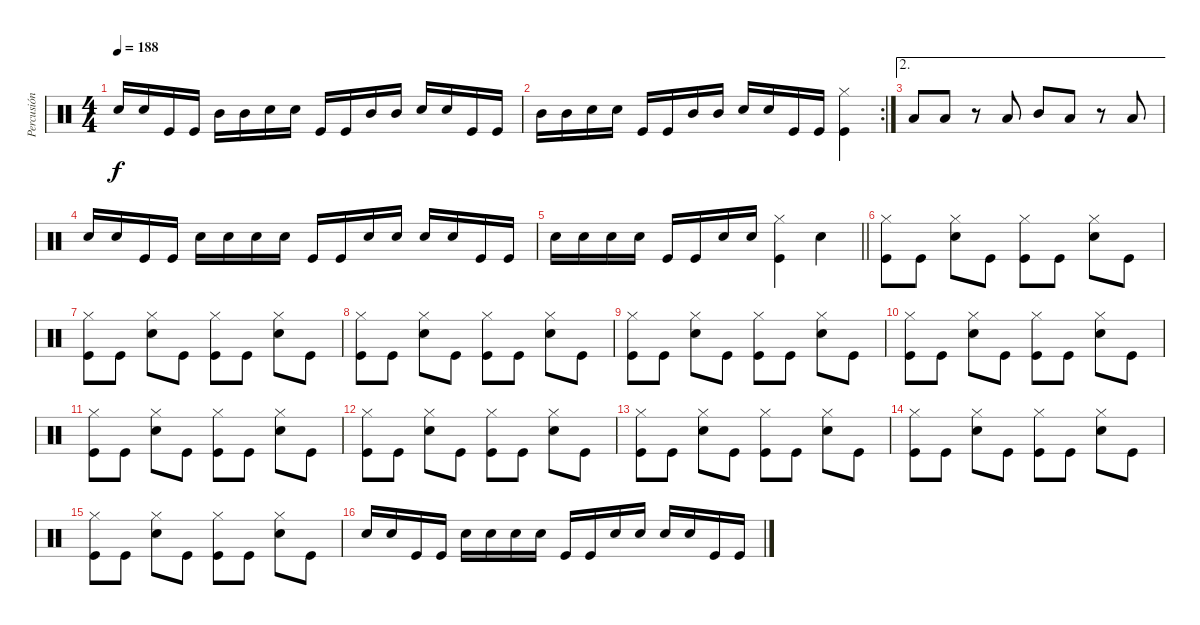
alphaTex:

\track ("Percusión" "Percusión") {instrument percussion}
\staff {score}
\articulation defaults
\ts (4 4)
\tempo 188
\clef neutral
\ks c "Snare (hit) 2".16{dy f} "Snare (hit) 2".16 "Kick (hit)".16 "Kick (hit)".16 "Mid Tom (hit)".16 "Mid Tom (hit)".16 "Snare (hit) 2".16 "Snare (hit) 2".16 "Kick (hit)".16 "Kick (hit)".16 "Mid Tom (hit)".16 "Mid Tom (hit)".16 "Snare (hit) 2".16 "Snare (hit) 2".16 "Kick (hit)".16 "Kick (hit)".16
|
\rc 2 "Mid Tom (hit)".16 "Mid Tom (hit)".16 "Snare (hit) 2".16 "Snare (hit) 2".16 "Kick (hit)".16 "Kick (hit)".16 "Mid Tom (hit)".16 "Mid Tom (hit)".16 "Snare (hit) 2".16 "Snare (hit) 2".16 "Kick (hit)".16 "Kick (hit)".16
("Hi-Hat (closed)" "Kick (hit)").4 |
\ae 2 "Low Tom (hit)".8 "Low Tom (hit)".8
r.8 "Low Tom (hit)".8 "Mid Tom (hit)".8 "Low Tom (hit)".8 r.8 "Low Tom (hit)".8 |
"Snare (hit) 2".16 "Snare (hit) 2".16 "Kick (hit)".16 "Kick (hit)".16 "Snare (hit) 2".16 "Snare (hit) 2".16 "Snare (hit) 2".16 "Snare (hit) 2".16 "Kick (hit)".16 "Kick (hit)".16 "Snare (hit) 2".16 "Snare (hit) 2".16 "Snare (hit) 2".16 "Snare (hit) 2".16 "Kick (hit)".16 "Kick (hit)".16 |
\barLineRight lightlight "Snare (hit) 2".16 "Snare (hit) 2".16 "Snare (hit) 2".16 "Snare (hit) 2".16 "Kick (hit)".16 "Kick (hit)".16 "Snare (hit) 2".16 "Snare (hit) 2".16
("Hi-Hat (closed)" "Kick (hit)").4 "Snare (hit) 2".4 |
("Hi-Hat (closed)" "Kick (hit)").8 "Kick (hit)".8 ("Hi-Hat (closed)" "Snare (hit) 2").8 "Kick (hit)".8 ("Hi-Hat (closed)" "Kick (hit)").8 "Kick (hit)".8 ("Hi-Hat (closed)" "Snare (hit) 2").8 "Kick (hit)".8 |
("Hi-Hat (closed)" "Kick (hit)").8 "Kick (hit)".8 ("Hi-Hat (closed)" "Snare (hit) 2").8 "Kick (hit)".8 ("Hi-Hat (closed)" "Kick (hit)").8 "Kick (hit)".8 ("Hi-Hat (closed)" "Snare (hit) 2").8 "Kick (hit)".8 |
("Hi-Hat (closed)" "Kick (hit)").8 "Kick (hit)".8 ("Hi-Hat (closed)" "Snare (hit) 2").8 "Kick (hit)".8 ("Hi-Hat (closed)" "Kick (hit)").8 "Kick (hit)".8 ("Hi-Hat (closed)" "Snare (hit) 2").8 "Kick (hit)".8 |
("Hi-Hat (closed)" "Kick (hit)").8 "Kick (hit)".8 ("Hi-Hat (closed)" "Snare (hit) 2").8 "Kick (hit)".8 ("Hi-Hat (closed)" "Kick (hit)").8 "Kick (hit)".8 ("Hi-Hat (closed)" "Snare (hit) 2").8 "Kick (hit)".8 |
("Hi-Hat (closed)" "Kick (hit)").8 "Kick (hit)".8 ("Hi-Hat (closed)" "Snare (hit) 2").8 "Kick (hit)".8 ("Hi-Hat (closed)" "Kick (hit)").8 "Kick (hit)".8 ("Hi-Hat (closed)" "Snare (hit) 2").8 "Kick (hit)".8 |
("Hi-Hat (closed)" "Kick (hit)").8 "Kick (hit)".8 ("Hi-Hat (closed)" "Snare (hit) 2").8 "Kick (hit)".8 ("Hi-Hat (closed)" "Kick (hit)").8 "Kick (hit)".8 ("Hi-Hat (closed)" "Snare (hit) 2").8 "Kick (hit)".8 |
("Hi-Hat (closed)" "Kick (hit)").8 "Kick (hit)".8 ("Hi-Hat (closed)" "Snare (hit) 2").8 "Kick (hit)".8 ("Hi-Hat (closed)" "Kick (hit)").8 "Kick (hit)".8 ("Hi-Hat (closed)" "Snare (hit) 2").8 "Kick (hit)".8 |
("Hi-Hat (closed)" "Kick (hit)").8 "Kick (hit)".8 ("Hi-Hat (closed)" "Snare (hit) 2").8 "Kick (hit)".8 ("Hi-Hat (closed)" "Kick (hit)").8 "Kick (hit)".8 ("Hi-Hat (closed)" "Snare (hit) 2").8 "Kick (hit)".8 |
("Hi-Hat (closed)" "Kick (hit)").8 "Kick (hit)".8 ("Hi-Hat (closed)" "Snare (hit) 2").8 "Kick (hit)".8 ("Hi-Hat (closed)" "Kick (hit)").8 "Kick (hit)".8 ("Hi-Hat (closed)" "Snare (hit) 2").8 "Kick (hit)".8 |
("Hi-Hat (closed)" "Kick (hit)").8 "Kick (hit)".8 ("Hi-Hat (closed)" "Snare (hit) 2").8 "Kick (hit)".8 ("Hi-Hat (closed)" "Kick (hit)").8 "Kick (hit)".8 ("Hi-Hat (closed)" "Snare (hit) 2").8 "Kick (hit)".8 |
"Snare (hit) 2".16 "Snare (hit) 2".16 "Kick (hit)".16 "Kick (hit)".16 "Snare (hit) 2".16 "Snare (hit) 2".16 "Snare (hit) 2".16 "Snare (hit) 2".16 "Kick (hit)".16 "Kick (hit)".16 "Snare (hit) 2".16 "Snare (hit) 2".16 "Snare (hit) 2".16 "Snare (hit) 2".16 "Kick (hit)".16 "Kick (hit)".16
